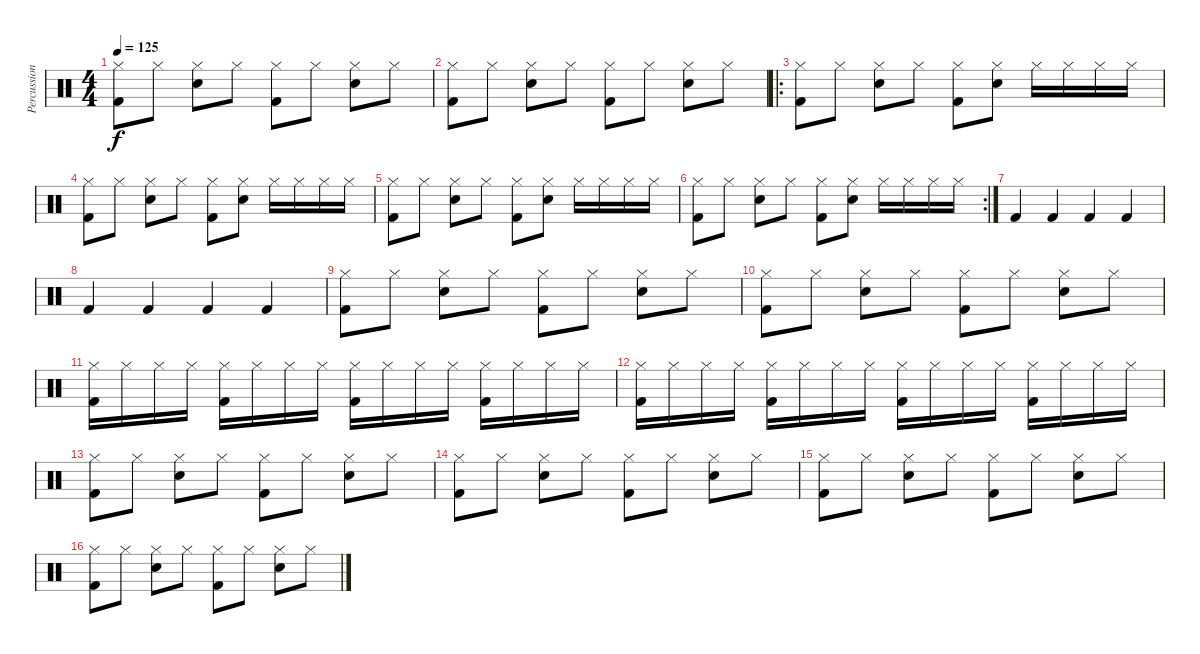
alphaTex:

\track ("Percussion" "Percussion") {instrument percussion}
\staff {score}
\articulation defaults
\ts (4 4)
\tempo 125
\clef neutral
\ks c
("Kick (hit) 2" "Hi-Hat (closed)").8{dy f} "Hi-Hat (closed)".8 ("Snare (hit) 2" "Hi-Hat (closed)").8 "Hi-Hat (closed)".8 ("Kick (hit) 2" "Hi-Hat (closed)").8 "Hi-Hat (closed)".8 ("Snare (hit) 2" "Hi-Hat (closed)").8 "Hi-Hat (closed)".8 |
("Kick (hit) 2" "Hi-Hat (closed)").8 "Hi-Hat (closed)".8 ("Snare (hit) 2" "Hi-Hat (closed)").8 "Hi-Hat (closed)".8 ("Kick (hit) 2" "Hi-Hat (closed)").8 "Hi-Hat (closed)".8 ("Snare (hit) 2" "Hi-Hat (closed)").8 "Hi-Hat (closed)".8 |
\ro
("Kick (hit) 2" "Hi-Hat (closed)").8 "Hi-Hat (closed)".8 ("Snare (hit) 2" "Hi-Hat (closed)").8 "Hi-Hat (closed)".8 ("Kick (hit) 2" "Hi-Hat (closed)").8 ("Snare (hit) 2" "Hi-Hat (closed)").8 "Hi-Hat (closed)".16 "Hi-Hat (closed)".16 "Hi-Hat (closed)".16 "Hi-Hat (closed)".16 |
("Kick (hit) 2" "Hi-Hat (closed)").8 "Hi-Hat (closed)".8 ("Snare (hit) 2" "Hi-Hat (closed)").8 "Hi-Hat (closed)".8 ("Kick (hit) 2" "Hi-Hat (closed)").8 ("Snare (hit) 2" "Hi-Hat (closed)").8 "Hi-Hat (closed)".16 "Hi-Hat (closed)".16 "Hi-Hat (closed)".16 "Hi-Hat (closed)".16 |
("Kick (hit) 2" "Hi-Hat (closed)").8 "Hi-Hat (closed)".8 ("Snare (hit) 2" "Hi-Hat (closed)").8 "Hi-Hat (closed)".8 ("Kick (hit) 2" "Hi-Hat (closed)").8 ("Snare (hit) 2" "Hi-Hat (closed)").8 "Hi-Hat (closed)".16 "Hi-Hat (closed)".16 "Hi-Hat (closed)".16 "Hi-Hat (closed)".16 |
\rc 2
("Kick (hit) 2" "Hi-Hat (closed)").8 "Hi-Hat (closed)".8 ("Snare (hit) 2" "Hi-Hat (closed)").8 "Hi-Hat (closed)".8 ("Kick (hit) 2" "Hi-Hat (closed)").8 ("Snare (hit) 2" "Hi-Hat (closed)").8 "Hi-Hat (closed)".16 "Hi-Hat (closed)".16 "Hi-Hat (closed)".16 "Hi-Hat (closed)".16 |
"Kick (hit) 2".4 "Kick (hit) 2".4 "Kick (hit) 2".4 "Kick (hit) 2".4 |
"Kick (hit) 2".4 "Kick (hit) 2".4 "Kick (hit) 2".4 "Kick (hit) 2".4 |
("Kick (hit) 2" "Hi-Hat (closed)").8 "Hi-Hat (closed)".8 ("Snare (hit) 2" "Hi-Hat (closed)").8 "Hi-Hat (closed)".8 ("Kick (hit) 2" "Hi-Hat (closed)").8 "Hi-Hat (closed)".8 ("Snare (hit) 2" "Hi-Hat (closed)").8 "Hi-Hat (closed)".8 |
("Kick (hit) 2" "Hi-Hat (closed)").8 "Hi-Hat (closed)".8 ("Snare (hit) 2" "Hi-Hat (closed)").8 "Hi-Hat (closed)".8 ("Kick (hit) 2" "Hi-Hat (closed)").8 "Hi-Hat (closed)".8 ("Snare (hit) 2" "Hi-Hat (closed)").8 "Hi-Hat (closed)".8 |
("Kick (hit) 2" "Hi-Hat (closed)").16 "Hi-Hat (closed)".16 "Hi-Hat (closed)".16 "Hi-Hat (closed)".16 ("Kick (hit) 2" "Hi-Hat (closed)").16 "Hi-Hat (closed)".16 "Hi-Hat (closed)".16 "Hi-Hat (closed)".16 ("Kick (hit) 2" "Hi-Hat (closed)").16 "Hi-Hat (closed)".16 "Hi-Hat (closed)".16 "Hi-Hat (closed)".16 ("Kick (hit) 2" "Hi-Hat (closed)").16 "Hi-Hat (closed)".16 "Hi-Hat (closed)".16 "Hi-Hat (closed)".16 |
("Kick (hit) 2" "Hi-Hat (closed)").16 "Hi-Hat (closed)".16 "Hi-Hat (closed)".16 "Hi-Hat (closed)".16 ("Kick (hit) 2" "Hi-Hat (closed)").16 "Hi-Hat (closed)".16 "Hi-Hat (closed)".16 "Hi-Hat (closed)".16 ("Kick (hit) 2" "Hi-Hat (closed)").16 "Hi-Hat (closed)".16 "Hi-Hat (closed)".16 "Hi-Hat (closed)".16 ("Kick (hit) 2" "Hi-Hat (closed)").16 "Hi-Hat (closed)".16 "Hi-Hat (closed)".16 "Hi-Hat (closed)".16 |
("Kick (hit) 2" "Hi-Hat (closed)").8 "Hi-Hat (closed)".8 ("Snare (hit) 2" "Hi-Hat (closed)").8 "Hi-Hat (closed)".8 ("Kick (hit) 2" "Hi-Hat (closed)").8 "Hi-Hat (closed)".8 ("Snare (hit) 2" "Hi-Hat (closed)").8 "Hi-Hat (closed)".8 |
("Kick (hit) 2" "Hi-Hat (closed)").8 "Hi-Hat (closed)".8 ("Snare (hit) 2" "Hi-Hat (closed)").8 "Hi-Hat (closed)".8 ("Kick (hit) 2" "Hi-Hat (closed)").8 "Hi-Hat (closed)".8 ("Snare (hit) 2" "Hi-Hat (closed)").8 "Hi-Hat (closed)".8 |
("Kick (hit) 2" "Hi-Hat (closed)").8 "Hi-Hat (closed)".8 ("Snare (hit) 2" "Hi-Hat (closed)").8 "Hi-Hat (closed)".8 ("Kick (hit) 2" "Hi-Hat (closed)").8 "Hi-Hat (closed)".8 ("Snare (hit) 2" "Hi-Hat (closed)").8 "Hi-Hat (closed)".8 |
("Kick (hit) 2" "Hi-Hat (closed)").8 "Hi-Hat (closed)".8 ("Snare (hit) 2" "Hi-Hat (closed)").8 "Hi-Hat (closed)".8 ("Kick (hit) 2" "Hi-Hat (closed)").8 "Hi-Hat (closed)".8 ("Snare (hit) 2" "Hi-Hat (closed)").8 "Hi-Hat (closed)".8
